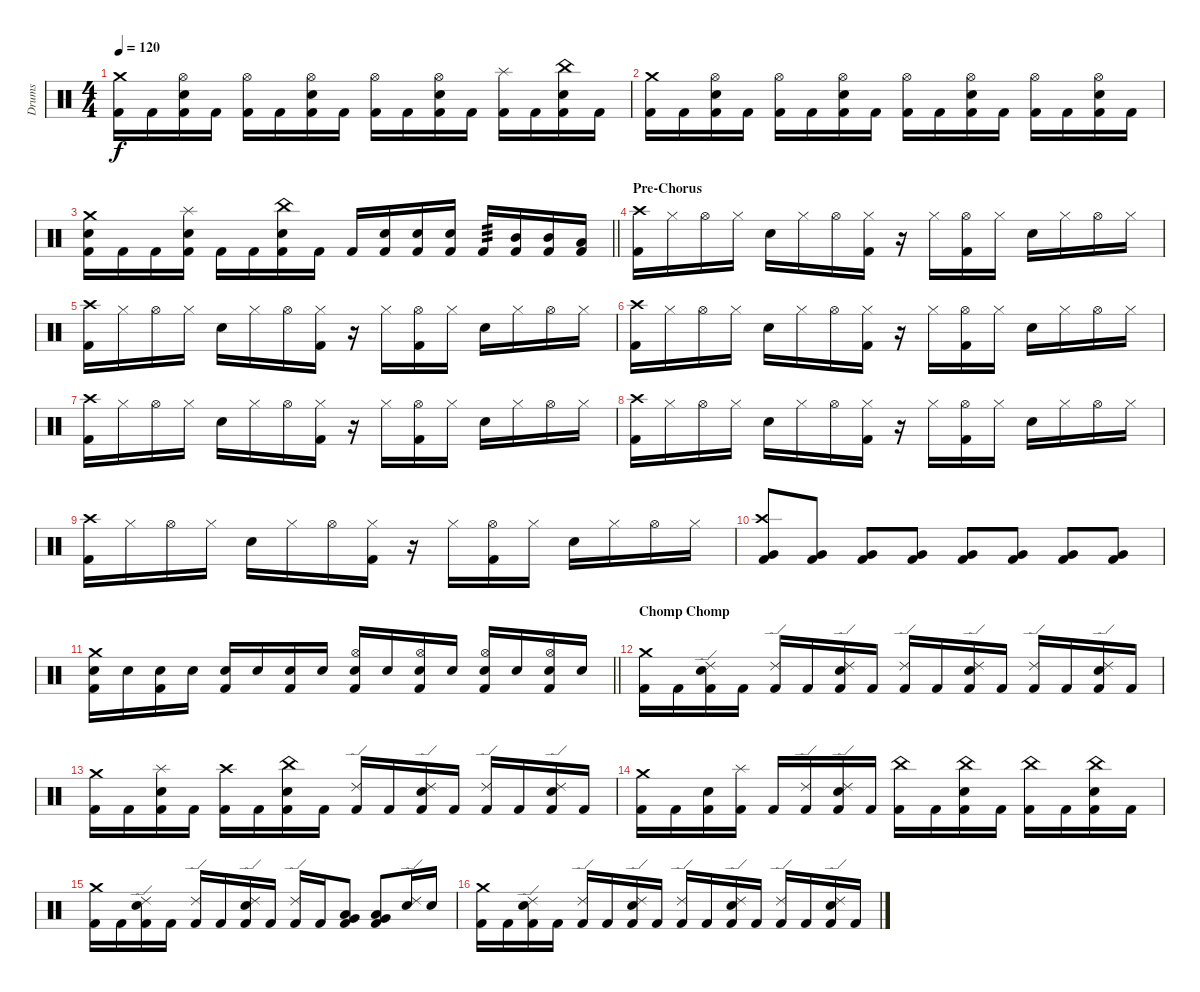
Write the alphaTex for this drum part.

\track ("Drums" "Drums") {instrument percussion}
\staff {score}
\articulation defaults
\ts (4 4)
\tempo 120
\clef neutral
\ks c
("Crash medium (hit)" "Kick (hit) 2").16{dy f} "Kick (hit) 2".16 ("Hi-Hat (open)" "Snare (hit) 2" "Kick (hit) 2").16 "Kick (hit) 2".16 ("Hi-Hat (open)" "Kick (hit) 2").16 "Kick (hit) 2".16 ("Hi-Hat (open)" "Snare (hit) 2" "Kick (hit) 2").16 "Kick (hit) 2".16 ("Hi-Hat (open)" "Kick (hit) 2").16 "Kick (hit) 2".16 ("Hi-Hat (open)" "Snare (hit) 2" "Kick (hit) 2").16 "Kick (hit) 2".16 ("Splash (hit)" "Kick (hit) 2").16 "Kick (hit) 2".16 ("China (hit)" "Snare (hit) 2" "Kick (hit) 2").16 "Kick (hit) 2".16 |
("Crash medium (hit)" "Kick (hit) 2").16 "Kick (hit) 2".16 ("Hi-Hat (open)" "Snare (hit) 2" "Kick (hit) 2").16 "Kick (hit) 2".16 ("Hi-Hat (open)" "Kick (hit) 2").16 "Kick (hit) 2".16 ("Hi-Hat (open)" "Snare (hit) 2" "Kick (hit) 2").16 "Kick (hit) 2".16 ("Hi-Hat (open)" "Kick (hit) 2").16 "Kick (hit) 2".16 ("Hi-Hat (open)" "Snare (hit) 2" "Kick (hit) 2").16 "Kick (hit) 2".16 ("Hi-Hat (open)" "Kick (hit) 2").16 "Kick (hit) 2".16 ("Hi-Hat (open)" "Snare (hit) 2" "Kick (hit) 2").16 "Kick (hit) 2".16 |
\barLineRight lightlight
("Crash medium (hit)" "Snare (hit) 2" "Kick (hit) 2").16 "Kick (hit) 2".16 "Kick (hit) 2".16 ("Splash (hit)" "Snare (hit) 2" "Kick (hit) 2").16 "Kick (hit) 2".16 "Kick (hit) 2".16 ("China (hit)" "Snare (hit) 2" "Kick (hit) 2").16 "Kick (hit) 2".16 "Kick (hit) 2".16 ("Snare (hit) 2" "Kick (hit) 2").16 ("Snare (hit) 2" "Kick (hit) 2").16 ("Snare (hit) 2" "Kick (hit) 2").16 "Kick (hit) 2".16{tp 3} ("Mid Tom (hit)" "Kick (hit) 2").16 ("Mid Tom (hit)" "Kick (hit) 2").16 ("Low Tom (hit)" "Kick (hit) 2").16 |
\section ("" "Pre-Chorus")
("Crash high (hit)" "Kick (hit) 2").16 "Hi-Hat (closed)".16 "Hi-Hat (open)".16 "Hi-Hat (closed)".16 "Snare (hit) 2".16 "Hi-Hat (closed)".16 "Hi-Hat (open)".16 ("Hi-Hat (closed)" "Kick (hit) 2").16 r.16 "Hi-Hat (closed)".16 ("Hi-Hat (open)" "Kick (hit) 2").16 "Hi-Hat (closed)".16 "Snare (hit) 2".16 "Hi-Hat (closed)".16 "Hi-Hat (open)".16 "Hi-Hat (closed)".16 |
("Crash high (hit)" "Kick (hit) 2").16 "Hi-Hat (closed)".16 "Hi-Hat (open)".16 "Hi-Hat (closed)".16 "Snare (hit) 2".16 "Hi-Hat (closed)".16 "Hi-Hat (open)".16 ("Hi-Hat (closed)" "Kick (hit) 2").16 r.16 "Hi-Hat (closed)".16 ("Hi-Hat (open)" "Kick (hit) 2").16 "Hi-Hat (closed)".16 "Snare (hit) 2".16 "Hi-Hat (closed)".16 "Hi-Hat (open)".16 "Hi-Hat (closed)".16 |
("Crash high (hit)" "Kick (hit) 2").16 "Hi-Hat (closed)".16 "Hi-Hat (open)".16 "Hi-Hat (closed)".16 "Snare (hit) 2".16 "Hi-Hat (closed)".16 "Hi-Hat (open)".16 ("Hi-Hat (closed)" "Kick (hit) 2").16 r.16 "Hi-Hat (closed)".16 ("Hi-Hat (open)" "Kick (hit) 2").16 "Hi-Hat (closed)".16 "Snare (hit) 2".16 "Hi-Hat (closed)".16 "Hi-Hat (open)".16 "Hi-Hat (closed)".16 |
("Crash high (hit)" "Kick (hit) 2").16 "Hi-Hat (closed)".16 "Hi-Hat (open)".16 "Hi-Hat (closed)".16 "Snare (hit) 2".16 "Hi-Hat (closed)".16 "Hi-Hat (open)".16 ("Hi-Hat (closed)" "Kick (hit) 2").16 r.16 "Hi-Hat (closed)".16 ("Hi-Hat (open)" "Kick (hit) 2").16 "Hi-Hat (closed)".16 "Snare (hit) 2".16 "Hi-Hat (closed)".16 "Hi-Hat (open)".16 "Hi-Hat (closed)".16 |
("Crash high (hit)" "Kick (hit) 2").16 "Hi-Hat (closed)".16 "Hi-Hat (open)".16 "Hi-Hat (closed)".16 "Snare (hit) 2".16 "Hi-Hat (closed)".16 "Hi-Hat (open)".16 ("Hi-Hat (closed)" "Kick (hit) 2").16 r.16 "Hi-Hat (closed)".16 ("Hi-Hat (open)" "Kick (hit) 2").16 "Hi-Hat (closed)".16 "Snare (hit) 2".16 "Hi-Hat (closed)".16 "Hi-Hat (open)".16 "Hi-Hat (closed)".16 |
("Crash high (hit)" "Kick (hit) 2").16 "Hi-Hat (closed)".16 "Hi-Hat (open)".16 "Hi-Hat (closed)".16 "Snare (hit) 2".16 "Hi-Hat (closed)".16 "Hi-Hat (open)".16 ("Hi-Hat (closed)" "Kick (hit) 2").16 r.16 "Hi-Hat (closed)".16 ("Hi-Hat (open)" "Kick (hit) 2").16 "Hi-Hat (closed)".16 "Snare (hit) 2".16 "Hi-Hat (closed)".16 "Hi-Hat (open)".16 "Hi-Hat (closed)".16 |
("Crash high (hit)" "Very Low Tom (hit)" "Kick (hit) 2").8 ("Very Low Tom (hit)" "Kick (hit) 2").8 ("Very Low Tom (hit)" "Kick (hit) 2").8 ("Very Low Tom (hit)" "Kick (hit) 2").8 ("Very Low Tom (hit)" "Kick (hit) 2").8 ("Very Low Tom (hit)" "Kick (hit) 2").8 ("Very Low Tom (hit)" "Kick (hit) 2").8 ("Very Low Tom (hit)" "Kick (hit) 2").8 |
\barLineRight lightlight
("Crash medium (hit)" "Snare (hit) 2" "Kick (hit) 2").16 "Snare (hit) 2".16 ("Snare (hit) 2" "Kick (hit) 2").16 "Snare (hit) 2".16 ("Snare (hit) 2" "Kick (hit) 2").16 "Snare (hit) 2".16 ("Snare (hit) 2" "Kick (hit) 2").16 "Snare (hit) 2".16 ("Hi-Hat (open)" "Snare (hit) 2" "Kick (hit) 2").16 "Snare (hit) 2".16 ("Hi-Hat (open)" "Snare (hit) 2" "Kick (hit) 2").16 "Snare (hit) 2".16 ("Hi-Hat (open)" "Snare (hit) 2" "Kick (hit) 2").16 "Snare (hit) 2".16 ("Hi-Hat (open)" "Snare (hit) 2" "Kick (hit) 2").16 "Snare (hit) 2".16 |
\section ("" "Chomp Chomp")
("Crash medium (hit)" "Kick (hit) 2").16 "Kick (hit) 2".16 ("Ride (edge) 2" "Snare (hit) 2" "Kick (hit) 2").16 "Kick (hit) 2".16 ("Ride (edge) 2" "Kick (hit) 2").16 "Kick (hit) 2".16 ("Ride (edge) 2" "Snare (hit) 2" "Kick (hit) 2").16 "Kick (hit) 2".16 ("Ride (edge) 2" "Kick (hit) 2").16 "Kick (hit) 2".16 ("Ride (edge) 2" "Snare (hit) 2" "Kick (hit) 2").16 "Kick (hit) 2".16 ("Ride (edge) 2" "Kick (hit) 2").16 "Kick (hit) 2".16 ("Ride (edge) 2" "Snare (hit) 2" "Kick (hit) 2").16 "Kick (hit) 2".16 |
("Crash medium (hit)" "Kick (hit) 2").16 "Kick (hit) 2".16 ("Splash (hit)" "Snare (hit) 2" "Kick (hit) 2").16 "Kick (hit) 2".16 ("Crash high (hit)" "Kick (hit) 2").16 "Kick (hit) 2".16 ("China (hit)" "Snare (hit) 2" "Kick (hit) 2").16 "Kick (hit) 2".16 ("Ride (edge) 2" "Kick (hit) 2").16 "Kick (hit) 2".16 ("Ride (edge) 2" "Snare (hit) 2" "Kick (hit) 2").16 "Kick (hit) 2".16 ("Ride (edge) 2" "Kick (hit) 2").16 "Kick (hit) 2".16 ("Ride (edge) 2" "Snare (hit) 2" "Kick (hit) 2").16 "Kick (hit) 2".16 |
("Crash medium (hit)" "Kick (hit) 2").16 "Kick (hit) 2".16 ("Snare (hit) 2" "Kick (hit) 2").16 ("Splash (hit)" "Kick (hit) 2").16 "Kick (hit) 2".16 ("Ride (edge) 2" "Kick (hit) 2").16 ("Ride (edge) 2" "Snare (hit) 2" "Kick (hit) 2").16 "Kick (hit) 2".16 ("China (hit)" "Kick (hit) 2").16 "Kick (hit) 2".16 ("China (hit)" "Snare (hit) 2" "Kick (hit) 2").16 "Kick (hit) 2".16 ("China (hit)" "Kick (hit) 2").16 "Kick (hit) 2".16 ("China (hit)" "Snare (hit) 2" "Kick (hit) 2").16 "Kick (hit) 2".16 |
("Crash medium (hit)" "Kick (hit) 2").16 "Kick (hit) 2".16 ("Ride (edge) 2" "Snare (hit) 2" "Kick (hit) 2").16 "Kick (hit) 2".16 ("Ride (edge) 2" "Kick (hit) 2").16 "Kick (hit) 2".16 ("Ride (edge) 2" "Snare (hit) 2" "Kick (hit) 2").16 "Kick (hit) 2".16 ("Ride (edge) 2" "Kick (hit) 2").16 "Kick (hit) 2".16 ("Very Low Tom (hit)" "Low Floor Tom (hit)" "Kick (hit) 2").8 ("Very Low Tom (hit)" "Low Floor Tom (hit)" "Kick (hit) 2").8 ("Ride (edge) 2" "Snare (hit) 2").16 "Snare (hit) 2".16 |
("Crash medium (hit)" "Kick (hit) 2").16 "Kick (hit) 2".16 ("Ride (edge) 2" "Snare (hit) 2" "Kick (hit) 2").16 "Kick (hit) 2".16 ("Ride (edge) 2" "Kick (hit) 2").16 "Kick (hit) 2".16 ("Ride (edge) 2" "Snare (hit) 2" "Kick (hit) 2").16 "Kick (hit) 2".16 ("Ride (edge) 2" "Kick (hit) 2").16 "Kick (hit) 2".16 ("Ride (edge) 2" "Snare (hit) 2" "Kick (hit) 2").16 "Kick (hit) 2".16 ("Ride (edge) 2" "Kick (hit) 2").16 "Kick (hit) 2".16 ("Ride (edge) 2" "Snare (hit) 2" "Kick (hit) 2").16 "Kick (hit) 2".16
